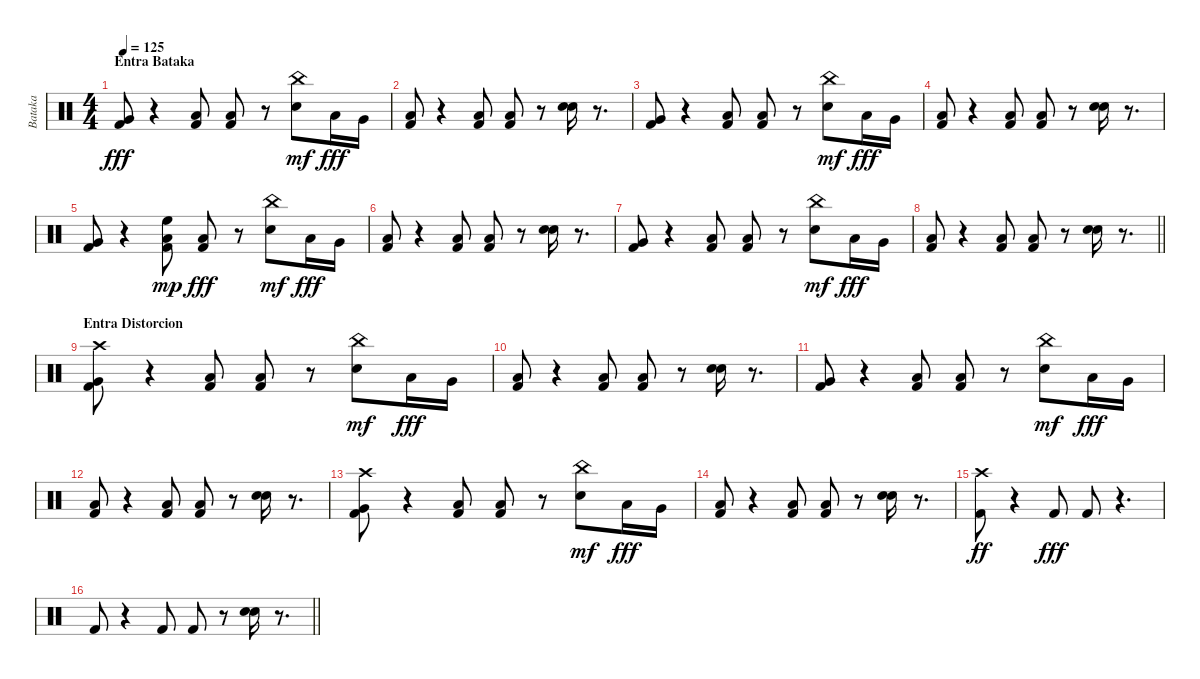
\track ("Bataka" "Bataka") {instrument percussion}
\staff {score}
\articulation defaults
\ts (4 4)
\section ("" "Entra Bataka")
\tempo 125
\clef neutral
\ks c
("Kick (hit) 2" "Very Low Tom (hit)").8{dy fff} r.4 ("Kick (hit) 2" "Low Floor Tom (hit)").8 ("Kick (hit) 2" "Low Floor Tom (hit)").8 r.8 ("Snare (hit) 2" "China (hit)").8{dy mf} "Low Tom (hit)".16{dy fff} "Very Low Tom (hit)".16 |
("Kick (hit) 2" "Low Floor Tom (hit)").8 r.4 ("Kick (hit) 2" "Low Floor Tom (hit)").8 ("Kick (hit) 2" "Low Floor Tom (hit)").8 r.8 ("Snare (hit) 2" "Snare (hit) 2").16 r.8{d} |
("Kick (hit) 2" "Very Low Tom (hit)").8 r.4 ("Kick (hit) 2" "Low Floor Tom (hit)").8 ("Kick (hit) 2" "Low Floor Tom (hit)").8 r.8 ("Snare (hit) 2" "China (hit)").8{dy mf} "Low Tom (hit)".16{dy fff} "Very Low Tom (hit)".16 |
("Kick (hit) 2" "Low Floor Tom (hit)").8 r.4 ("Kick (hit) 2" "Low Floor Tom (hit)").8 ("Kick (hit) 2" "Low Floor Tom (hit)").8 r.8 ("Snare (hit) 2" "Snare (hit) 2").16 r.8{d} |
("Kick (hit) 2" "Very Low Tom (hit)").8 r.4 ("Kick (hit) 2" "Low Floor Tom (hit)" "High Floor Tom (hit)").8{dy mp} ("Kick (hit) 2" "Low Floor Tom (hit)").8{dy fff} r.8 ("Snare (hit) 2" "China (hit)").8{dy mf} "Low Tom (hit)".16{dy fff} "Very Low Tom (hit)".16 |
("Kick (hit) 2" "Low Floor Tom (hit)").8 r.4 ("Kick (hit) 2" "Low Floor Tom (hit)").8 ("Kick (hit) 2" "Low Floor Tom (hit)").8 r.8 ("Snare (hit) 2" "Snare (hit) 2").16 r.8{d} |
("Kick (hit) 2" "Very Low Tom (hit)").8 r.4 ("Kick (hit) 2" "Low Floor Tom (hit)").8 ("Kick (hit) 2" "Low Floor Tom (hit)").8 r.8 ("Snare (hit) 2" "China (hit)").8{dy mf} "Low Tom (hit)".16{dy fff} "Very Low Tom (hit)".16 |
\barLineRight lightlight
("Kick (hit) 2" "Low Floor Tom (hit)").8 r.4 ("Kick (hit) 2" "Low Floor Tom (hit)").8 ("Kick (hit) 2" "Low Floor Tom (hit)").8 r.8 ("Snare (hit) 2" "Snare (hit) 2").16 r.8{d} |
\section ("" "Entra Distorcion")
("Kick (hit) 2" "Very Low Tom (hit)" "Crash high (hit)").8 r.4 ("Kick (hit) 2" "Low Floor Tom (hit)").8 ("Kick (hit) 2" "Low Floor Tom (hit)").8 r.8 ("Snare (hit) 2" "China (hit)").8{dy mf} "Low Tom (hit)".16{dy fff} "Very Low Tom (hit)".16 |
("Kick (hit) 2" "Low Floor Tom (hit)").8 r.4 ("Kick (hit) 2" "Low Floor Tom (hit)").8 ("Kick (hit) 2" "Low Floor Tom (hit)").8 r.8 ("Snare (hit) 2" "Snare (hit) 2").16 r.8{d} |
("Kick (hit) 2" "Very Low Tom (hit)").8 r.4 ("Kick (hit) 2" "Low Floor Tom (hit)").8 ("Kick (hit) 2" "Low Floor Tom (hit)").8 r.8 ("Snare (hit) 2" "China (hit)").8{dy mf} "Low Tom (hit)".16{dy fff} "Very Low Tom (hit)".16 |
("Kick (hit) 2" "Low Floor Tom (hit)").8 r.4 ("Kick (hit) 2" "Low Floor Tom (hit)").8 ("Kick (hit) 2" "Low Floor Tom (hit)").8 r.8 ("Snare (hit) 2" "Snare (hit) 2").16 r.8{d} |
("Kick (hit) 2" "Very Low Tom (hit)" "Crash high (hit)").8 r.4 ("Kick (hit) 2" "Low Floor Tom (hit)").8 ("Kick (hit) 2" "Low Floor Tom (hit)").8 r.8 ("Snare (hit) 2" "China (hit)").8{dy mf} "Low Tom (hit)".16{dy fff} "Very Low Tom (hit)".16 |
("Kick (hit) 2" "Low Floor Tom (hit)").8 r.4 ("Kick (hit) 2" "Low Floor Tom (hit)").8 ("Kick (hit) 2" "Low Floor Tom (hit)").8 r.8 ("Snare (hit) 2" "Snare (hit) 2").16 r.8{d} |
("Kick (hit) 2" "Crash high (hit)").8{dy ff} r.4 "Kick (hit) 2".8{dy fff} "Kick (hit) 2".8 r.4{d} |
\barLineRight lightlight "Kick (hit) 2".8
r.4 "Kick (hit) 2".8 "Kick (hit) 2".8 r.8 ("Snare (hit) 2" "Snare (hit) 2").16 r.8{d}
